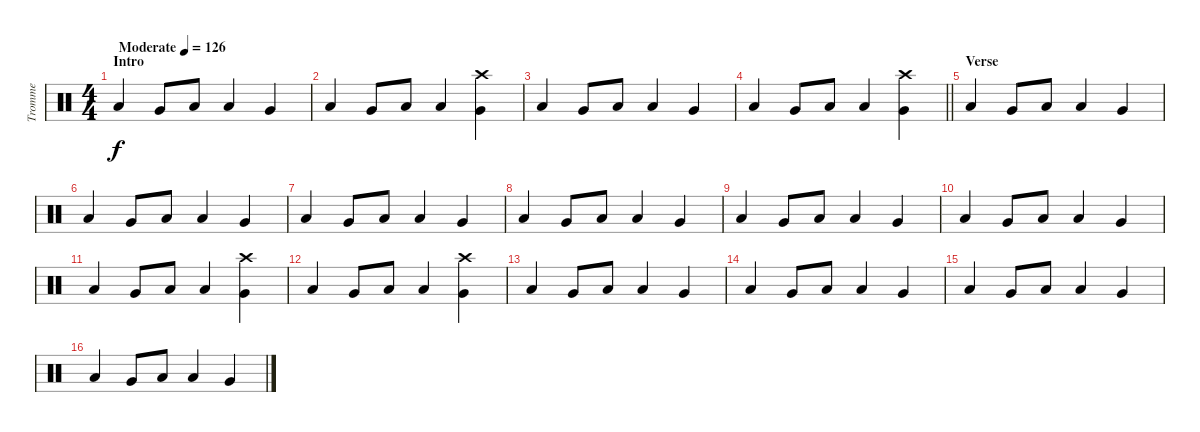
\track ("Tromme" "Tromme") {instrument percussion}
\staff {score}
\articulation defaults
\ts (4 4)
\section ("" "Intro")
\tempo (126 "Moderate")
\clef neutral
\ks c "Low Floor Tom (hit)".4{dy f} "Very Low Tom (hit)".8 "Low Floor Tom (hit)".8 "Low Floor Tom (hit)".4 "Very Low Tom (hit)".4
|
"Low Floor Tom (hit)".4 "Very Low Tom (hit)".8 "Low Floor Tom (hit)".8 "Low Floor Tom (hit)".4 ("Crash high (hit)" "Very Low Tom (hit)").4 |
"Low Floor Tom (hit)".4 "Very Low Tom (hit)".8 "Low Floor Tom (hit)".8 "Low Floor Tom (hit)".4 "Very Low Tom (hit)".4 |
\barLineRight lightlight "Low Floor Tom (hit)".4 "Very Low Tom (hit)".8 "Low Floor Tom (hit)".8 "Low Floor Tom (hit)".4
("Crash high (hit)" "Very Low Tom (hit)").4 |
\section ("" "Verse")
"Low Floor Tom (hit)".4 "Very Low Tom (hit)".8 "Low Floor Tom (hit)".8 "Low Floor Tom (hit)".4 "Very Low Tom (hit)".4 |
"Low Floor Tom (hit)".4 "Very Low Tom (hit)".8 "Low Floor Tom (hit)".8 "Low Floor Tom (hit)".4 "Very Low Tom (hit)".4 |
"Low Floor Tom (hit)".4 "Very Low Tom (hit)".8 "Low Floor Tom (hit)".8 "Low Floor Tom (hit)".4 "Very Low Tom (hit)".4 |
"Low Floor Tom (hit)".4 "Very Low Tom (hit)".8 "Low Floor Tom (hit)".8 "Low Floor Tom (hit)".4 "Very Low Tom (hit)".4 |
"Low Floor Tom (hit)".4 "Very Low Tom (hit)".8 "Low Floor Tom (hit)".8 "Low Floor Tom (hit)".4 "Very Low Tom (hit)".4 |
"Low Floor Tom (hit)".4 "Very Low Tom (hit)".8 "Low Floor Tom (hit)".8 "Low Floor Tom (hit)".4 "Very Low Tom (hit)".4 |
"Low Floor Tom (hit)".4 "Very Low Tom (hit)".8 "Low Floor Tom (hit)".8 "Low Floor Tom (hit)".4 ("Crash high (hit)" "Very Low Tom (hit)").4 |
"Low Floor Tom (hit)".4 "Very Low Tom (hit)".8 "Low Floor Tom (hit)".8 "Low Floor Tom (hit)".4 ("Crash high (hit)" "Very Low Tom (hit)").4 |
"Low Floor Tom (hit)".4 "Very Low Tom (hit)".8 "Low Floor Tom (hit)".8 "Low Floor Tom (hit)".4 "Very Low Tom (hit)".4 |
"Low Floor Tom (hit)".4 "Very Low Tom (hit)".8 "Low Floor Tom (hit)".8 "Low Floor Tom (hit)".4 "Very Low Tom (hit)".4 |
"Low Floor Tom (hit)".4 "Very Low Tom (hit)".8 "Low Floor Tom (hit)".8 "Low Floor Tom (hit)".4 "Very Low Tom (hit)".4 |
"Low Floor Tom (hit)".4 "Very Low Tom (hit)".8 "Low Floor Tom (hit)".8 "Low Floor Tom (hit)".4 "Very Low Tom (hit)".4
